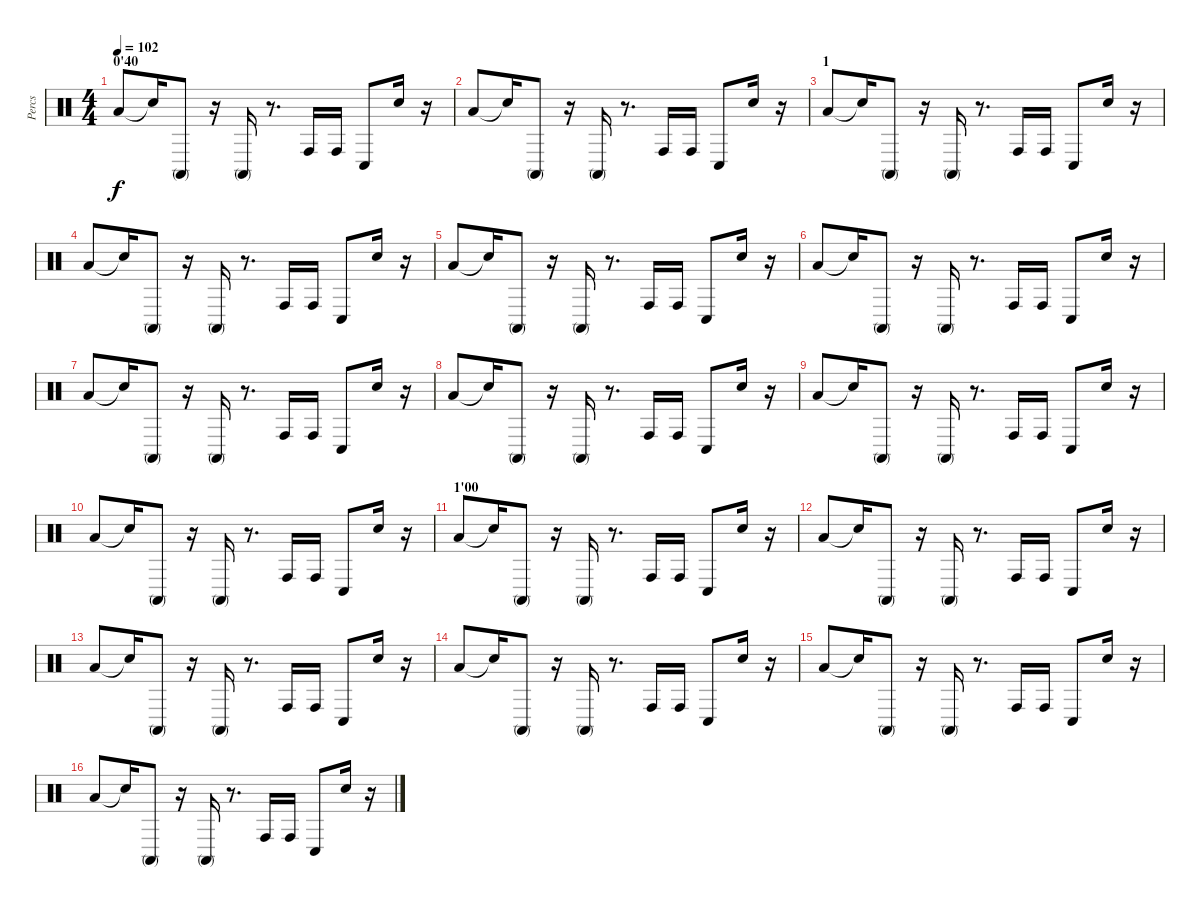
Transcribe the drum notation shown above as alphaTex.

\track ("Percs" "Percs") {instrument percussion}
\staff {score}
\articulation defaults
\ts (4 4)
\section ("" "0'40")
\tempo 102
\clef neutral
\ks c "Low Floor Tom (hit)".8{dy f} "Snare (hit)"{t}.16 "Conga high (mute)".8
r.16 "Conga high (mute)".16 r.8{d} "Conga high (hit)".16 "Conga high (hit)".16 "Conga low (hit)".8 "Hand Clap (hit)".16 r.16 |
"Low Floor Tom (hit)".8 "Snare (hit)"{t}.16 "Conga high (mute)".8 r.16 "Conga high (mute)".16 r.8{d} "Conga high (hit)".16 "Conga high (hit)".16 "Conga low (hit)".8 "Hand Clap (hit)".16 r.16 |
\section ("" "1")
"Low Floor Tom (hit)".8 "Snare (hit)"{t}.16 "Conga high (mute)".8 r.16 "Conga high (mute)".16 r.8{d} "Conga high (hit)".16 "Conga high (hit)".16 "Conga low (hit)".8 "Hand Clap (hit)".16 r.16 |
"Low Floor Tom (hit)".8 "Snare (hit)"{t}.16 "Conga high (mute)".8 r.16 "Conga high (mute)".16 r.8{d} "Conga high (hit)".16 "Conga high (hit)".16 "Conga low (hit)".8 "Hand Clap (hit)".16 r.16 |
"Low Floor Tom (hit)".8 "Snare (hit)"{t}.16 "Conga high (mute)".8 r.16 "Conga high (mute)".16 r.8{d} "Conga high (hit)".16 "Conga high (hit)".16 "Conga low (hit)".8 "Hand Clap (hit)".16 r.16 |
"Low Floor Tom (hit)".8 "Snare (hit)"{t}.16 "Conga high (mute)".8 r.16 "Conga high (mute)".16 r.8{d} "Conga high (hit)".16 "Conga high (hit)".16 "Conga low (hit)".8 "Hand Clap (hit)".16 r.16 |
"Low Floor Tom (hit)".8 "Snare (hit)"{t}.16 "Conga high (mute)".8 r.16 "Conga high (mute)".16 r.8{d} "Conga high (hit)".16 "Conga high (hit)".16 "Conga low (hit)".8 "Hand Clap (hit)".16 r.16 |
"Low Floor Tom (hit)".8 "Snare (hit)"{t}.16 "Conga high (mute)".8 r.16 "Conga high (mute)".16 r.8{d} "Conga high (hit)".16 "Conga high (hit)".16 "Conga low (hit)".8 "Hand Clap (hit)".16 r.16 |
"Low Floor Tom (hit)".8 "Snare (hit)"{t}.16 "Conga high (mute)".8 r.16 "Conga high (mute)".16 r.8{d} "Conga high (hit)".16 "Conga high (hit)".16 "Conga low (hit)".8 "Hand Clap (hit)".16 r.16 |
"Low Floor Tom (hit)".8 "Snare (hit)"{t}.16 "Conga high (mute)".8 r.16 "Conga high (mute)".16 r.8{d} "Conga high (hit)".16 "Conga high (hit)".16 "Conga low (hit)".8 "Hand Clap (hit)".16 r.16 |
\section ("" "1'00")
"Low Floor Tom (hit)".8 "Snare (hit)"{t}.16 "Conga high (mute)".8 r.16 "Conga high (mute)".16 r.8{d} "Conga high (hit)".16 "Conga high (hit)".16 "Conga low (hit)".8 "Hand Clap (hit)".16 r.16 |
"Low Floor Tom (hit)".8 "Snare (hit)"{t}.16 "Conga high (mute)".8 r.16 "Conga high (mute)".16 r.8{d} "Conga high (hit)".16 "Conga high (hit)".16 "Conga low (hit)".8 "Hand Clap (hit)".16 r.16 |
"Low Floor Tom (hit)".8 "Snare (hit)"{t}.16 "Conga high (mute)".8 r.16 "Conga high (mute)".16 r.8{d} "Conga high (hit)".16 "Conga high (hit)".16 "Conga low (hit)".8 "Hand Clap (hit)".16 r.16 |
"Low Floor Tom (hit)".8 "Snare (hit)"{t}.16 "Conga high (mute)".8 r.16 "Conga high (mute)".16 r.8{d} "Conga high (hit)".16 "Conga high (hit)".16 "Conga low (hit)".8 "Hand Clap (hit)".16 r.16 |
"Low Floor Tom (hit)".8 "Snare (hit)"{t}.16 "Conga high (mute)".8 r.16 "Conga high (mute)".16 r.8{d} "Conga high (hit)".16 "Conga high (hit)".16 "Conga low (hit)".8 "Hand Clap (hit)".16 r.16 |
"Low Floor Tom (hit)".8 "Snare (hit)"{t}.16 "Conga high (mute)".8 r.16 "Conga high (mute)".16 r.8{d} "Conga high (hit)".16 "Conga high (hit)".16 "Conga low (hit)".8 "Hand Clap (hit)".16 r.16
